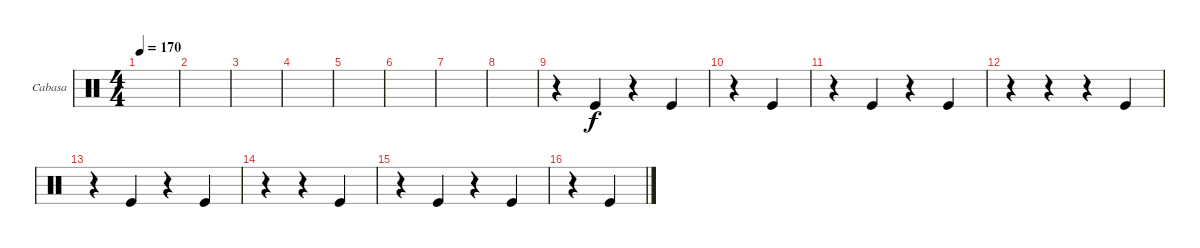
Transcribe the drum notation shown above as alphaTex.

\defaultSystemsLayout 4
\bracketExtendMode groupsimilarinstruments
\firstSystemTrackNameOrientation horizontal
\otherSystemsTrackNameOrientation horizontal
\track ("Cabasa" "Cabasa") {instrument percussion}
\staff {score}
\articulation defaults
\ts (4 4)
\tempo 170
\clef neutral
\scale
0.474178
\ks c
|
\scale
0.262911 |
\scale
0.262911 |
\scale
0.333333 |
\scale
0.333333 |
\scale
0.333333 |
\scale
0.333333 |
\scale
0.333333 |
\scale
0.333333 r.4 "Kick (hit)".4 r.4 "Kick (hit)".4 |
\scale
0.333333 r.4 "Kick (hit)".4 |
\scale
0.333333 r.4 "Kick (hit)".4 r.4 "Kick (hit)".4 |
\scale
0.333333 r.4 r.4 r.4 "Kick (hit)".4 |
\scale
0.333333 r.4 "Kick (hit)".4 r.4 "Kick (hit)".4 |
\scale
0.333333 r.4 r.4 "Kick (hit)".4 |
\scale
0.333333 r.4 "Kick (hit)".4 r.4 "Kick (hit)".4 |
r.4 "Kick (hit)".4
